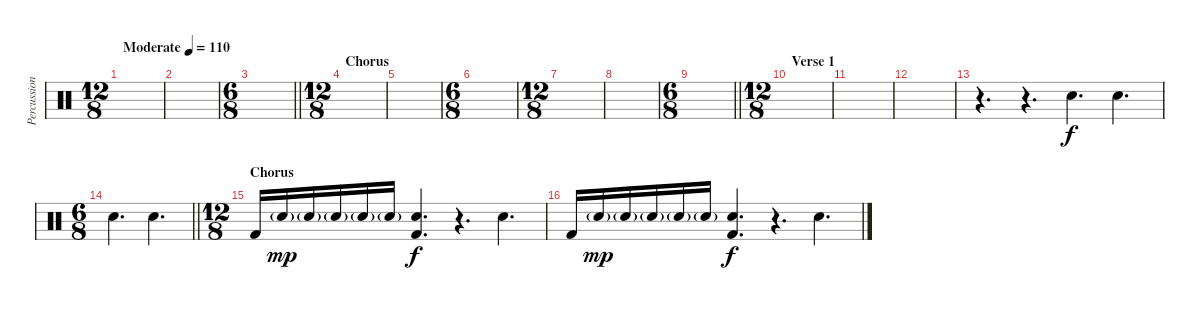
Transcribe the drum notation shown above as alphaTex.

\track ("Percussion" "Percussion") {instrument percussion}
\staff {score}
\articulation defaults
\ts (12 8)
\tempo (110 "Moderate")
\clef neutral
\ks c
|
|
\ts (6 8)
\barLineRight lightlight
|
\ts (12 8)
\section ("" "Chorus")
|
|
\ts (6 8)
|
\ts (12 8)
|
|
\ts (6 8)
\barLineRight lightlight
|
\ts (12 8)
\section ("" "Verse 1")
|
|
|
r.4{d} r.4{d} "Snare (hit) 2".4{d} "Snare (hit) 2".4{d} |
\ts (6 8)
\barLineRight lightlight "Snare (hit) 2".4{d} "Snare (hit) 2".4{d}
|
\ts (12 8)
\section ("" "Chorus")
"Kick (hit) 2".16 "Snare (hit) 2"{g}.16{dy mp} "Snare (hit) 2"{g}.16 "Snare (hit) 2"{g}.16 "Snare (hit) 2"{g}.16 "Snare (hit) 2"{g}.16 ("Snare (hit) 2" "Kick (hit) 2").4{d dy f} r.4{d} "Snare (hit) 2".4{d} |
"Kick (hit) 2".16 "Snare (hit) 2"{g}.16{dy mp} "Snare (hit) 2"{g}.16 "Snare (hit) 2"{g}.16 "Snare (hit) 2"{g}.16 "Snare (hit) 2"{g}.16 ("Snare (hit) 2" "Kick (hit) 2").4{d dy f} r.4{d} "Snare (hit) 2".4{d}
